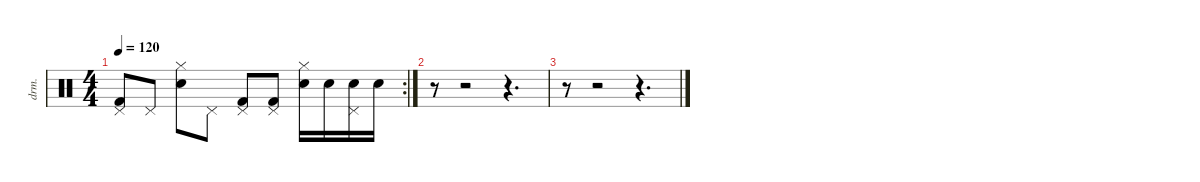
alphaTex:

\defaultSystemsLayout 4
\hideDynamics
\bracketExtendMode nobrackets
\otherSystemsTrackNameOrientation horizontal
\track ("Jeff Campitelli" "drm.") {instrument percussion}
\staff {score}
\articulation defaults
\rc 2
\ts (4 4)
\tempo 120
\clef neutral
\ks c
("Pedal Hi-Hat (hit)" "Kick (hit) 2").8{dy f beam Up} "Pedal Hi-Hat (hit)".8{beam Up} ("Hi-Hat (closed)" "Snare (hit) 2").8{beam Down} "Pedal Hi-Hat (hit)".8{beam Down} ("Pedal Hi-Hat (hit)" "Kick (hit) 2").8{beam Up} ("Pedal Hi-Hat (hit)" "Kick (hit) 2").8{beam Up} ("Hi-Hat (closed)" "Snare (hit) 2").16{beam Down} "Snare (hit) 2".16{beam Down} ("Pedal Hi-Hat (hit)" "Snare (hit) 2").16{beam Down} "Snare (hit) 2".16{beam Down} |
r.8{beam Down} r.2{beam Down} r.4{d beam Down} |
r.8{beam Down} r.2{beam Down} r.4{d beam Down}
